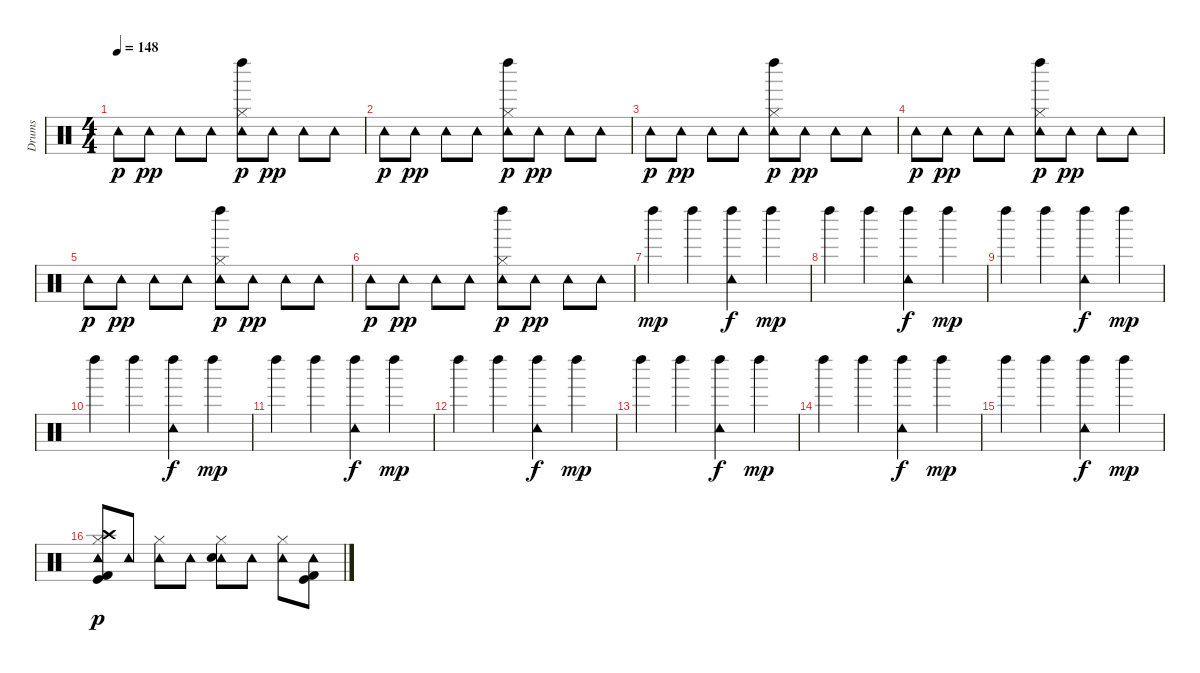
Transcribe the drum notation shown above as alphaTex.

\track ("Drums" "Drums") {instrument percussion}
\staff {score}
\articulation defaults
\ts (4 4)
\tempo 148
\clef neutral
\ks c "Tambourine (hit)".8{dy p} "Tambourine (hit)".8{dy pp} "Tambourine (hit)".8 "Tambourine (hit)".8
("Tambourine (hit)" "Hi-Hat (closed)" "Left Maraca (hit)").8{dy p} "Tambourine (hit)".8{dy pp} "Tambourine (hit)".8 "Tambourine (hit)".8 |
"Tambourine (hit)".8{dy p} "Tambourine (hit)".8{dy pp} "Tambourine (hit)".8 "Tambourine (hit)".8 ("Tambourine (hit)" "Hi-Hat (closed)" "Left Maraca (hit)").8{dy p} "Tambourine (hit)".8{dy pp} "Tambourine (hit)".8 "Tambourine (hit)".8 |
"Tambourine (hit)".8{dy p} "Tambourine (hit)".8{dy pp} "Tambourine (hit)".8 "Tambourine (hit)".8 ("Tambourine (hit)" "Hi-Hat (closed)" "Left Maraca (hit)").8{dy p} "Tambourine (hit)".8{dy pp} "Tambourine (hit)".8 "Tambourine (hit)".8 |
"Tambourine (hit)".8{dy p} "Tambourine (hit)".8{dy pp} "Tambourine (hit)".8 "Tambourine (hit)".8 ("Tambourine (hit)" "Hi-Hat (closed)" "Left Maraca (hit)").8{dy p} "Tambourine (hit)".8{dy pp} "Tambourine (hit)".8 "Tambourine (hit)".8 |
"Tambourine (hit)".8{dy p} "Tambourine (hit)".8{dy pp} "Tambourine (hit)".8 "Tambourine (hit)".8 ("Tambourine (hit)" "Hi-Hat (closed)" "Left Maraca (hit)").8{dy p} "Tambourine (hit)".8{dy pp} "Tambourine (hit)".8 "Tambourine (hit)".8 |
"Tambourine (hit)".8{dy p} "Tambourine (hit)".8{dy pp} "Tambourine (hit)".8 "Tambourine (hit)".8 ("Tambourine (hit)" "Hi-Hat (closed)" "Left Maraca (hit)").8{dy p} "Tambourine (hit)".8{dy pp} "Tambourine (hit)".8 "Tambourine (hit)".8 |
"Left Maraca (hit)".4{dy mp} "Left Maraca (hit)".4 ("Tambourine (hit)" "Left Maraca (hit)").4{dy f} "Left Maraca (hit)".4{dy mp} |
"Left Maraca (hit)".4 "Left Maraca (hit)".4 ("Tambourine (hit)" "Left Maraca (hit)").4{dy f} "Left Maraca (hit)".4{dy mp} |
"Left Maraca (hit)".4 "Left Maraca (hit)".4 ("Tambourine (hit)" "Left Maraca (hit)").4{dy f} "Left Maraca (hit)".4{dy mp} |
"Left Maraca (hit)".4 "Left Maraca (hit)".4 ("Tambourine (hit)" "Left Maraca (hit)").4{dy f} "Left Maraca (hit)".4{dy mp} |
"Left Maraca (hit)".4 "Left Maraca (hit)".4 ("Tambourine (hit)" "Left Maraca (hit)").4{dy f} "Left Maraca (hit)".4{dy mp} |
"Left Maraca (hit)".4 "Left Maraca (hit)".4 ("Tambourine (hit)" "Left Maraca (hit)").4{dy f} "Left Maraca (hit)".4{dy mp} |
"Left Maraca (hit)".4 "Left Maraca (hit)".4 ("Tambourine (hit)" "Left Maraca (hit)").4{dy f} "Left Maraca (hit)".4{dy mp} |
"Left Maraca (hit)".4 "Left Maraca (hit)".4 ("Tambourine (hit)" "Left Maraca (hit)").4{dy f} "Left Maraca (hit)".4{dy mp} |
"Left Maraca (hit)".4 "Left Maraca (hit)".4 ("Tambourine (hit)" "Left Maraca (hit)").4{dy f} "Left Maraca (hit)".4{dy mp} |
("Hi-Hat (closed)" "Tambourine (hit)" "Crash high (hit)" "Kick (hit) 2" "Kick (hit)").8{dy p} "Tambourine (hit)".8 ("Hi-Hat (closed)" "Tambourine (hit)").8 "Tambourine (hit)".8 ("Hi-Hat (closed)" "Tambourine (hit)" "Electric Snare (hit)").8 "Tambourine (hit)".8 ("Hi-Hat (closed)" "Tambourine (hit)").8 ("Tambourine (hit)" "Kick (hit) 2" "Kick (hit)").8
